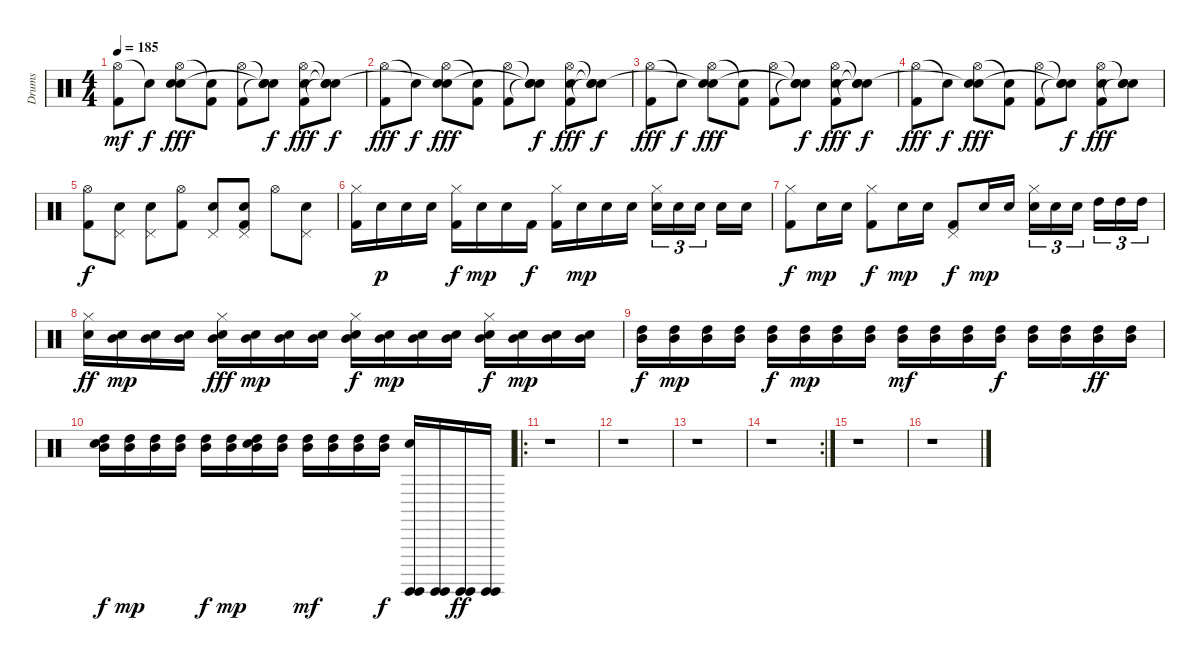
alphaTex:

\track ("Drums" "Drums") {instrument percussion}
\staff {score}
\articulation defaults
\ts (4 4)
\tempo 185
\clef neutral
\ks c
("Hi-Hat (open)" "Kick (hit) 2").8{dy mf} "Snare (hit)"{t}.8{dy f} ("Hi-Hat (open)" "Electric Snare (hit)" "Snare (hit)"{t}).8{dy fff} ("Snare (hit)"{t} "Kick (hit) 2").8 ("Hi-Hat (open)" "Kick (hit) 2").8 ("Snare (hit)"{t} "Snare (hit)"{t} "Snare (hit)"{t}).8{dy f} ("Hi-Hat (open)" "Electric Snare (hit)" "Kick (hit) 2").8{dy fff} ("Snare (hit)"{t} "Snare (hit)"{t} "Snare (hit)"{t}).8{dy f} |
("Hi-Hat (open)" "Kick (hit) 2").8{dy fff} "Snare (hit)"{t}.8{dy f} ("Hi-Hat (open)" "Electric Snare (hit)" "Snare (hit)"{t}).8{dy fff} ("Snare (hit)"{t} "Kick (hit) 2").8 ("Hi-Hat (open)" "Kick (hit) 2").8 ("Snare (hit)"{t} "Snare (hit)"{t} "Snare (hit)"{t}).8{dy f} ("Hi-Hat (open)" "Electric Snare (hit)" "Kick (hit) 2").8{dy fff} ("Snare (hit)"{t} "Snare (hit)"{t} "Snare (hit)"{t}).8{dy f} |
("Hi-Hat (open)" "Kick (hit) 2").8{dy fff} "Snare (hit)"{t}.8{dy f} ("Hi-Hat (open)" "Electric Snare (hit)" "Snare (hit)"{t}).8{dy fff} ("Snare (hit)"{t} "Kick (hit) 2").8 ("Hi-Hat (open)" "Kick (hit) 2").8 ("Snare (hit)"{t} "Snare (hit)"{t} "Snare (hit)"{t}).8{dy f} ("Hi-Hat (open)" "Electric Snare (hit)" "Kick (hit) 2").8{dy fff} ("Snare (hit)"{t} "Snare (hit)"{t} "Snare (hit)"{t}).8{dy f} |
("Hi-Hat (open)" "Kick (hit) 2").8{dy fff} "Snare (hit)"{t}.8{dy f} ("Hi-Hat (open)" "Electric Snare (hit)" "Snare (hit)"{t}).8{dy fff} ("Snare (hit)"{t} "Kick (hit) 2").8 ("Hi-Hat (open)" "Kick (hit) 2").8 ("Snare (hit)"{t} "Snare (hit)"{t} "Snare (hit)"{t}).8{dy f} ("Hi-Hat (open)" "Electric Snare (hit)" "Kick (hit) 2").8{dy fff} ("Snare (hit)"{t} "Electric Snare (hit)" "Snare (hit)"{t}).8 |
("Hi-Hat (open)" "Kick (hit) 2").8{dy f} ("Pedal Hi-Hat (hit)" "Electric Snare (hit)").8 ("Pedal Hi-Hat (hit)" "Electric Snare (hit)").8 ("Hi-Hat (open)" "Kick (hit) 2").8 ("Pedal Hi-Hat (hit)" "Electric Snare (hit)").8 ("Pedal Hi-Hat (hit)" "Electric Snare (hit)" "Kick (hit) 2").8 "Hi-Hat (open)".8 ("Pedal Hi-Hat (hit)" "Electric Snare (hit)").8 |
("Hi-Hat (closed)" "Kick (hit) 2").16 "Electric Snare (hit)".16{dy p} "Electric Snare (hit)".16 "Electric Snare (hit)".16 ("Hi-Hat (closed)" "Kick (hit) 2").16{dy f} "Electric Snare (hit)".16{dy mp} "Electric Snare (hit)".16 "Kick (hit) 2".16{dy f} ("Hi-Hat (closed)" "Kick (hit) 2").16 "Electric Snare (hit)".16{dy mp} "Electric Snare (hit)".16 "Electric Snare (hit)".16 ("Hi-Hat (closed)" "Electric Snare (hit)").16{tu (3 2)} "Electric Snare (hit)".16{tu (3 2)} "Electric Snare (hit)".16{tu (3 2) beam splitsecondary} "Electric Snare (hit)".16 "Electric Snare (hit)".16 |
("Hi-Hat (closed)" "Kick (hit) 2").8{dy f} "Electric Snare (hit)".16{dy mp} "Electric Snare (hit)".16 ("Hi-Hat (closed)" "Kick (hit) 2").8{dy f} "Electric Snare (hit)".16{dy mp} "Electric Snare (hit)".16 ("Pedal Hi-Hat (hit)" "Kick (hit) 2").8{dy f} "Electric Snare (hit)".16{dy mp} "Electric Snare (hit)".16 ("Hi-Hat (closed)" "Electric Snare (hit)").16{tu (3 2)} "Electric Snare (hit)".16{tu (3 2)} "Electric Snare (hit)".16{tu (3 2) beam splitsecondary} "High Tom (hit)".16{tu (3 2)} "High Tom (hit)".16{tu (3 2)} "High Tom (hit)".16{tu (3 2)} |
("Hi-Hat (closed)" "Electric Snare (hit)").16{dy ff} ("Electric Snare (hit)" "Mid Tom (hit)").16{dy mp} ("Electric Snare (hit)" "Mid Tom (hit)").16 ("Electric Snare (hit)" "Mid Tom (hit)").16 ("Hi-Hat (closed)" "Electric Snare (hit)" "Mid Tom (hit)").16{dy fff} ("Electric Snare (hit)" "Mid Tom (hit)").16{dy mp} ("Electric Snare (hit)" "Mid Tom (hit)").16 ("Electric Snare (hit)" "Mid Tom (hit)").16 ("Hi-Hat (closed)" "Electric Snare (hit)" "Mid Tom (hit)").16{dy f} ("Electric Snare (hit)" "Mid Tom (hit)").16{dy mp} ("Electric Snare (hit)" "Mid Tom (hit)").16 ("Electric Snare (hit)" "Mid Tom (hit)").16 ("Hi-Hat (closed)" "Electric Snare (hit)" "Mid Tom (hit)").16{dy f} ("Electric Snare (hit)" "Mid Tom (hit)").16{dy mp} ("Electric Snare (hit)" "Mid Tom (hit)").16 ("Electric Snare (hit)" "Mid Tom (hit)").16 |
("Mid Tom (hit)" "High Tom (hit)").16{dy f} ("Mid Tom (hit)" "High Tom (hit)").16{dy mp} ("Mid Tom (hit)" "High Tom (hit)").16 ("Mid Tom (hit)" "High Tom (hit)").16 ("Mid Tom (hit)" "High Tom (hit)").16{dy f} ("Mid Tom (hit)" "High Tom (hit)").16{dy mp} ("Mid Tom (hit)" "High Tom (hit)").16 ("Mid Tom (hit)" "High Tom (hit)").16 ("Mid Tom (hit)" "High Tom (hit)").16{dy mf} ("Mid Tom (hit)" "High Tom (hit)").16 ("Mid Tom (hit)" "High Tom (hit)").16 ("Mid Tom (hit)" "High Tom (hit)").16{dy f} ("Mid Tom (hit)" "High Tom (hit)").16 ("Mid Tom (hit)" "High Tom (hit)").16 ("Mid Tom (hit)" "High Tom (hit)").16{dy ff} ("Mid Tom (hit)" "High Tom (hit)").16 |
("Electric Snare (hit)" "Mid Tom (hit)" "High Tom (hit)").16{dy f} ("Mid Tom (hit)" "High Tom (hit)").16{dy mp} ("Mid Tom (hit)" "High Tom (hit)").16 ("Mid Tom (hit)" "High Tom (hit)").16 ("Mid Tom (hit)" "High Tom (hit)").16{dy f} ("Mid Tom (hit)" "High Tom (hit)").16{dy mp} ("Electric Snare (hit)" "Mid Tom (hit)" "High Tom (hit)").16 ("Mid Tom (hit)" "High Tom (hit)").16 ("Mid Tom (hit)" "High Tom (hit)").16{dy mf} ("Mid Tom (hit)" "High Tom (hit)").16 ("Mid Tom (hit)" "High Tom (hit)").16 ("Mid Tom (hit)" "High Tom (hit)").16{dy f} ("Electric Snare (hit)" "Surdo (hit)" "Surdo (hit)").16 ("Surdo (hit)" "Surdo (hit)").16 ("Surdo (hit)" "Surdo (hit)").16{dy ff} ("Surdo (hit)" "Surdo (hit)").16 |
\ro
r.1 |
r.1 |
r.1 |
\rc 2
r.1 |
r.1 |
r.1
